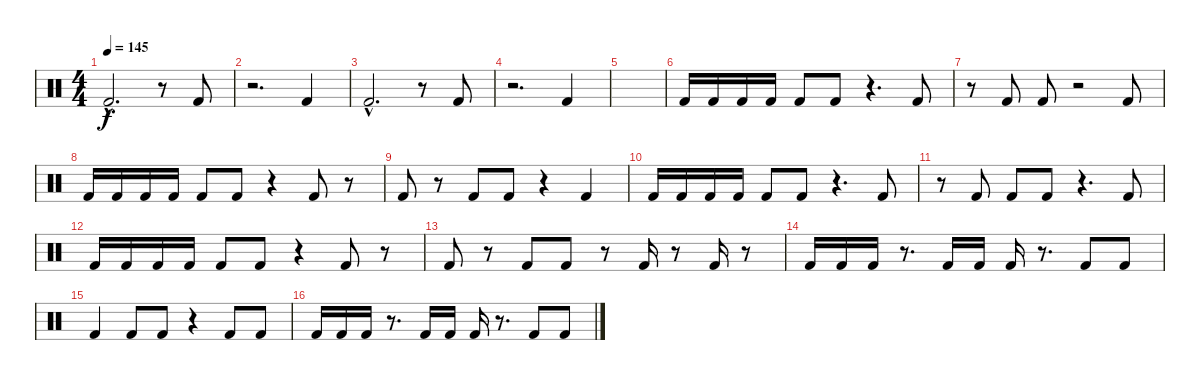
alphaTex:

\track "" {instrument percussion}
\staff {score}
\articulation defaults
\ts (4 4)
\tempo 145
\clef neutral
\ks c "Kick (hit) 2"{hac}.2{d dy f}
r.8 "Kick (hit) 2".8 |
r.2{d} "Kick (hit) 2".4 |
"Kick (hit) 2"{hac}.2{d} r.8 "Kick (hit) 2".8 |
r.2{d} "Kick (hit) 2".4 |
|
"Kick (hit) 2".16 "Kick (hit) 2".16 "Kick (hit) 2".16 "Kick (hit) 2".16 "Kick (hit) 2".8 "Kick (hit) 2".8 r.4{d} "Kick (hit) 2".8 |
r.8 "Kick (hit) 2".8 "Kick (hit) 2".8 r.2 "Kick (hit) 2".8 |
"Kick (hit) 2".16 "Kick (hit) 2".16 "Kick (hit) 2".16 "Kick (hit) 2".16 "Kick (hit) 2".8 "Kick (hit) 2".8 r.4 "Kick (hit) 2".8 r.8 |
"Kick (hit) 2".8 r.8 "Kick (hit) 2".8 "Kick (hit) 2".8 r.4 "Kick (hit) 2".4 |
"Kick (hit) 2".16 "Kick (hit) 2".16 "Kick (hit) 2".16 "Kick (hit) 2".16 "Kick (hit) 2".8 "Kick (hit) 2".8 r.4{d} "Kick (hit) 2".8 |
r.8 "Kick (hit) 2".8 "Kick (hit) 2".8 "Kick (hit) 2".8 r.4{d} "Kick (hit) 2".8 |
"Kick (hit) 2".16 "Kick (hit) 2".16 "Kick (hit) 2".16 "Kick (hit) 2".16 "Kick (hit) 2".8 "Kick (hit) 2".8 r.4 "Kick (hit) 2".8 r.8 |
"Kick (hit) 2".8 r.8 "Kick (hit) 2".8 "Kick (hit) 2".8 r.8 "Kick (hit) 2".16 r.8 "Kick (hit) 2".16 r.8 |
"Kick (hit) 2".16 "Kick (hit) 2".16 "Kick (hit) 2".16 r.8{d} "Kick (hit) 2".16 "Kick (hit) 2".16 "Kick (hit) 2".16 r.8{d} "Kick (hit) 2".8 "Kick (hit) 2".8 |
"Kick (hit) 2".4 "Kick (hit) 2".8 "Kick (hit) 2".8 r.4 "Kick (hit) 2".8 "Kick (hit) 2".8 |
"Kick (hit) 2".16 "Kick (hit) 2".16 "Kick (hit) 2".16 r.8{d} "Kick (hit) 2".16 "Kick (hit) 2".16 "Kick (hit) 2".16 r.8{d} "Kick (hit) 2".8 "Kick (hit) 2".8
